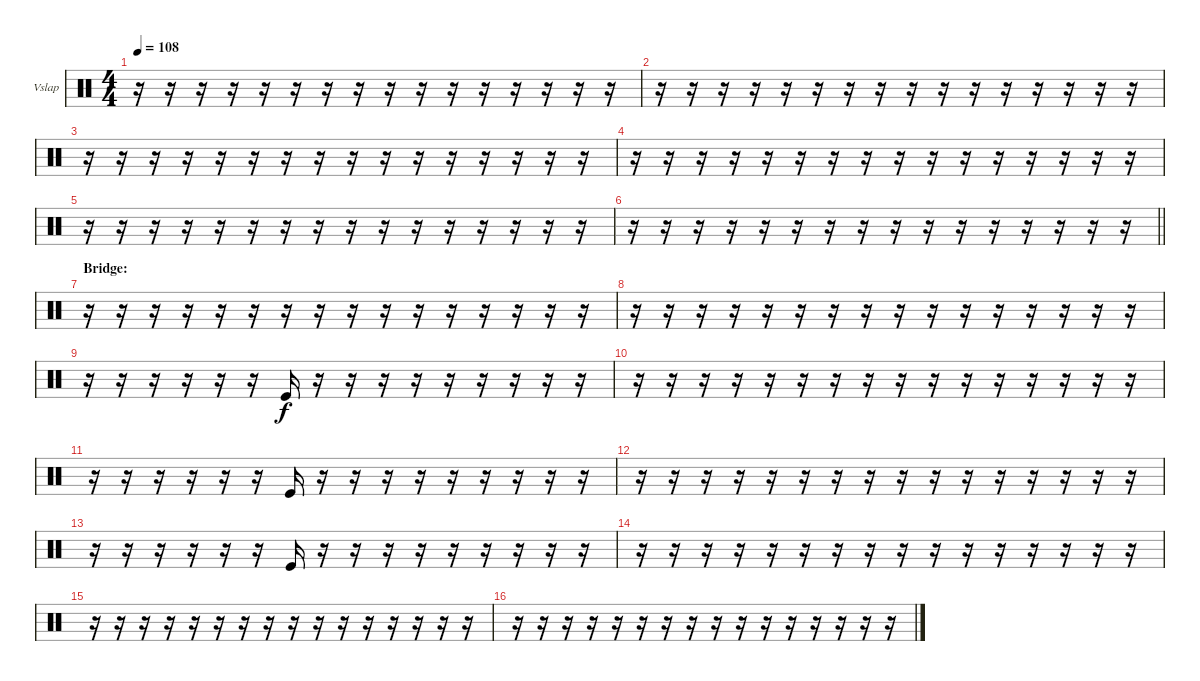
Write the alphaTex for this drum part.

\bracketExtendMode groupsimilarinstruments
\firstSystemTrackNameOrientation horizontal
\otherSystemsTrackNameOrientation horizontal
\track ("Vibraslap" "Vslap") {instrument percussion}
\staff {score}
\articulation defaults
\ts (4 4)
\tempo 108
\clef neutral
\ks c
r.16{dy f} r.16 r.16 r.16 r.16 r.16 r.16 r.16 r.16 r.16 r.16 r.16 r.16 r.16 r.16 r.16 |
r.16 r.16 r.16 r.16 r.16 r.16 r.16 r.16 r.16 r.16 r.16 r.16 r.16 r.16 r.16 r.16 |
r.16 r.16 r.16 r.16 r.16 r.16 r.16 r.16 r.16 r.16 r.16 r.16 r.16 r.16 r.16 r.16 |
r.16 r.16 r.16 r.16 r.16 r.16 r.16 r.16 r.16 r.16 r.16 r.16 r.16 r.16 r.16 r.16 |
r.16 r.16 r.16 r.16 r.16 r.16 r.16 r.16 r.16 r.16 r.16 r.16 r.16 r.16 r.16 r.16 |
\barLineRight lightlight
r.16 r.16 r.16 r.16 r.16 r.16 r.16 r.16 r.16 r.16 r.16 r.16 r.16 r.16 r.16 r.16 |
\section ("" "Bridge:")
r.16 r.16 r.16 r.16 r.16 r.16 r.16 r.16 r.16 r.16 r.16 r.16 r.16 r.16 r.16 r.16 |
r.16 r.16 r.16 r.16 r.16 r.16 r.16 r.16 r.16 r.16 r.16 r.16 r.16 r.16 r.16 r.16 |
r.16 r.16 r.16 r.16 r.16 r.16 "Kick (hit)".16 r.16 r.16 r.16 r.16 r.16 r.16 r.16 r.16 r.16 |
r.16 r.16 r.16 r.16 r.16 r.16 r.16 r.16 r.16 r.16 r.16 r.16 r.16 r.16 r.16 r.16 |
r.16 r.16 r.16 r.16 r.16 r.16 "Kick (hit)".16 r.16 r.16 r.16 r.16 r.16 r.16 r.16 r.16 r.16 |
r.16 r.16 r.16 r.16 r.16 r.16 r.16 r.16 r.16 r.16 r.16 r.16 r.16 r.16 r.16 r.16 |
r.16 r.16 r.16 r.16 r.16 r.16 "Kick (hit)".16 r.16 r.16 r.16 r.16 r.16 r.16 r.16 r.16 r.16 |
r.16 r.16 r.16 r.16 r.16 r.16 r.16 r.16 r.16 r.16 r.16 r.16 r.16 r.16 r.16 r.16 |
r.16 r.16 r.16 r.16 r.16 r.16 r.16 r.16 r.16 r.16 r.16 r.16 r.16 r.16 r.16 r.16 |
r.16 r.16 r.16 r.16 r.16 r.16 r.16 r.16 r.16 r.16 r.16 r.16 r.16 r.16 r.16 r.16
